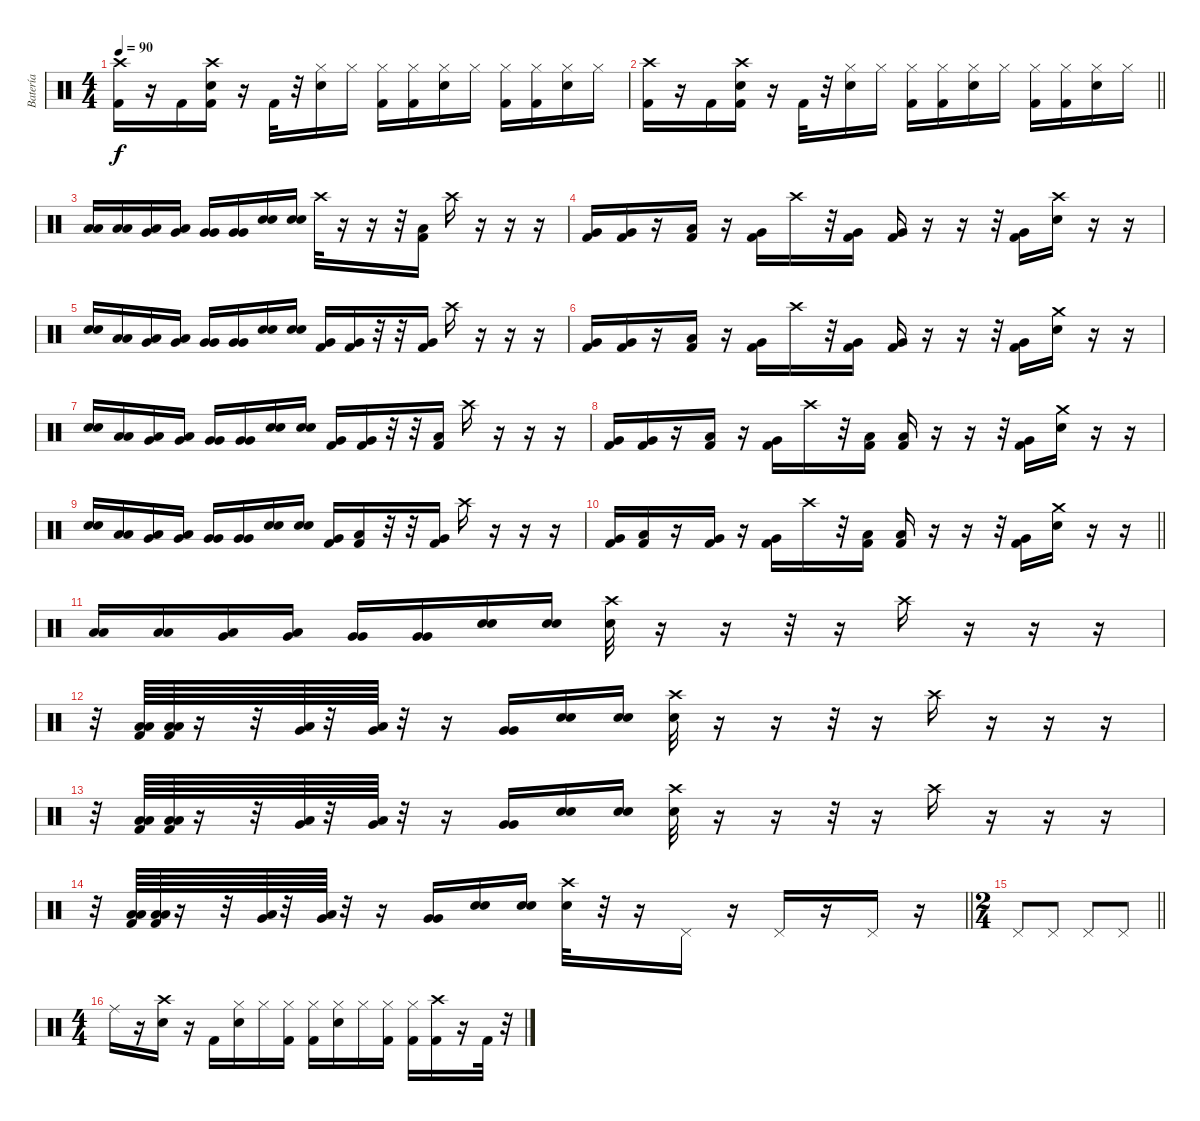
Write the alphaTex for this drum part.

\track ("Batería   (Jony)" "Batería   ") {instrument percussion}
\staff {score}
\articulation defaults
\ts (4 4)
\tempo 90
\clef neutral
\ks c
("Crash high (hit)" "Kick (hit) 2").16{dy f} r.16 "Kick (hit) 2".16 ("Crash high (hit)" "Electric Snare (hit)" "Kick (hit) 2").16 r.16 "Kick (hit) 2".32 r.32 ("Hi-Hat (closed)" "Electric Snare (hit)").16 "Hi-Hat (closed)".16 ("Hi-Hat (closed)" "Kick (hit) 2").16 ("Hi-Hat (closed)" "Kick (hit) 2").16 ("Hi-Hat (closed)" "Electric Snare (hit)").16 "Hi-Hat (closed)".16 ("Hi-Hat (closed)" "Kick (hit) 2").16 ("Hi-Hat (closed)" "Kick (hit) 2").16 ("Hi-Hat (closed)" "Electric Snare (hit)").16 "Hi-Hat (closed)".16 |
\barLineRight lightlight
("Crash high (hit)" "Kick (hit) 2").16 r.16 "Kick (hit) 2".16 ("Crash high (hit)" "Electric Snare (hit)" "Kick (hit) 2").16 r.16 "Kick (hit) 2".32 r.32 ("Hi-Hat (closed)" "Electric Snare (hit)").16 "Hi-Hat (closed)".16 ("Hi-Hat (closed)" "Kick (hit) 2").16 ("Hi-Hat (closed)" "Kick (hit) 2").16 ("Hi-Hat (closed)" "Electric Snare (hit)").16 "Hi-Hat (closed)".16 ("Hi-Hat (closed)" "Kick (hit) 2").16 ("Hi-Hat (closed)" "Kick (hit) 2").16 ("Hi-Hat (closed)" "Electric Snare (hit)").16 "Hi-Hat (closed)".16 |
("Low Tom (hit)" "Low Tom (hit)").16 ("Low Tom (hit)" "Low Tom (hit)").16 ("Low Tom (hit)" "Very Low Tom (hit)").16 ("Low Tom (hit)" "Very Low Tom (hit)").16 ("Very Low Tom (hit)" "Very Low Tom (hit)").16 ("Very Low Tom (hit)" "Very Low Tom (hit)").16 ("Electric Snare (hit)" "Electric Snare (hit)").16 ("Electric Snare (hit)" "Electric Snare (hit)").16 "Crash high (hit)".32 r.16 r.16 r.32 ("Low Tom (hit)" "Kick (hit) 2").16 "Crash high (hit)".16 r.16 r.16 r.16 |
("Very Low Tom (hit)" "Kick (hit) 2").16 ("Very Low Tom (hit)" "Kick (hit) 2").16 r.16 ("Low Tom (hit)" "Kick (hit) 2").16 r.16 ("Very Low Tom (hit)" "Kick (hit) 2").16 "Crash high (hit)".16 r.32 ("Very Low Tom (hit)" "Kick (hit) 2").16 ("Very Low Tom (hit)" "Kick (hit) 2").16 r.16 r.16 r.32 ("Very Low Tom (hit)" "Kick (hit) 2").16 ("Crash high (hit)" "Electric Snare (hit)").16 r.16 r.16 |
("Electric Snare (hit)" "Electric Snare (hit)").16 ("Low Tom (hit)" "Low Tom (hit)").16 ("Low Tom (hit)" "Very Low Tom (hit)").16 ("Low Tom (hit)" "Very Low Tom (hit)").16 ("Very Low Tom (hit)" "Very Low Tom (hit)").16 ("Very Low Tom (hit)" "Very Low Tom (hit)").16 ("Electric Snare (hit)" "Electric Snare (hit)").16 ("Electric Snare (hit)" "Electric Snare (hit)").16 ("Very Low Tom (hit)" "Kick (hit) 2").16 ("Very Low Tom (hit)" "Kick (hit) 2").16 r.32 r.32 ("Very Low Tom (hit)" "Kick (hit) 2").16 "Crash high (hit)".16 r.16 r.16 r.16 |
("Very Low Tom (hit)" "Kick (hit) 2").16 ("Very Low Tom (hit)" "Kick (hit) 2").16 r.16 ("Low Tom (hit)" "Kick (hit) 2").16 r.16 ("Very Low Tom (hit)" "Kick (hit) 2").16 "Crash high (hit)".16 r.32 ("Very Low Tom (hit)" "Kick (hit) 2").16 ("Very Low Tom (hit)" "Kick (hit) 2").16 r.16 r.16 r.32 ("Very Low Tom (hit)" "Kick (hit) 2").16 ("Crash medium (hit)" "Electric Snare (hit)").16 r.16 r.16 |
("Electric Snare (hit)" "Electric Snare (hit)").16 ("Low Tom (hit)" "Low Tom (hit)").16 ("Low Tom (hit)" "Very Low Tom (hit)").16 ("Low Tom (hit)" "Very Low Tom (hit)").16 ("Very Low Tom (hit)" "Very Low Tom (hit)").16 ("Very Low Tom (hit)" "Very Low Tom (hit)").16 ("Electric Snare (hit)" "Electric Snare (hit)").16 ("Electric Snare (hit)" "Electric Snare (hit)").16 ("Very Low Tom (hit)" "Kick (hit) 2").16 ("Very Low Tom (hit)" "Kick (hit) 2").16 r.32 r.32 ("Low Tom (hit)" "Kick (hit) 2").16 "Crash high (hit)".16 r.16 r.16 r.16 |
("Very Low Tom (hit)" "Kick (hit) 2").16 ("Very Low Tom (hit)" "Kick (hit) 2").16 r.16 ("Low Tom (hit)" "Kick (hit) 2").16 r.16 ("Very Low Tom (hit)" "Kick (hit) 2").16 "Crash high (hit)".16 r.32 ("Low Tom (hit)" "Kick (hit) 2").16 ("Low Tom (hit)" "Kick (hit) 2").16 r.16 r.16 r.32 ("Very Low Tom (hit)" "Kick (hit) 2").16 ("Crash medium (hit)" "Electric Snare (hit)").16 r.16 r.16 |
("Electric Snare (hit)" "Electric Snare (hit)").16 ("Low Tom (hit)" "Low Tom (hit)").16 ("Low Tom (hit)" "Very Low Tom (hit)").16 ("Low Tom (hit)" "Very Low Tom (hit)").16 ("Very Low Tom (hit)" "Very Low Tom (hit)").16 ("Very Low Tom (hit)" "Very Low Tom (hit)").16 ("Electric Snare (hit)" "Electric Snare (hit)").16 ("Electric Snare (hit)" "Electric Snare (hit)").16 ("Very Low Tom (hit)" "Kick (hit) 2").16 ("Low Tom (hit)" "Kick (hit) 2").16 r.32 r.32 ("Very Low Tom (hit)" "Kick (hit) 2").16 "Crash high (hit)".16 r.16 r.16 r.16 |
\barLineRight lightlight
("Very Low Tom (hit)" "Kick (hit) 2").16 ("Low Tom (hit)" "Kick (hit) 2").16 r.16 ("Very Low Tom (hit)" "Kick (hit) 2").16 r.16 ("Very Low Tom (hit)" "Kick (hit) 2").16 "Crash high (hit)".16 r.32 ("Low Tom (hit)" "Kick (hit) 2").16 ("Low Tom (hit)" "Kick (hit) 2").16 r.16 r.16 r.32 ("Very Low Tom (hit)" "Kick (hit) 2").16 ("Crash medium (hit)" "Electric Snare (hit)").16 r.16 r.16 |
("Low Tom (hit)" "Low Tom (hit)").16 ("Low Tom (hit)" "Low Tom (hit)").16 ("Low Tom (hit)" "Very Low Tom (hit)").16 ("Low Tom (hit)" "Very Low Tom (hit)").16 ("Very Low Tom (hit)" "Very Low Tom (hit)").16 ("Very Low Tom (hit)" "Very Low Tom (hit)").16 ("Electric Snare (hit)" "Electric Snare (hit)").16 ("Electric Snare (hit)" "Electric Snare (hit)").16 ("Crash high (hit)" "Electric Snare (hit)").32 r.16 r.16 r.32 r.16 "Crash high (hit)".16 r.16 r.16 r.16 |
r.32 ("Low Tom (hit)" "Low Tom (hit)" "Kick (hit) 2").64 ("Low Tom (hit)" "Low Tom (hit)" "Kick (hit) 2").64 r.16 r.32 ("Low Tom (hit)" "Very Low Tom (hit)").64 r.32 ("Low Tom (hit)" "Very Low Tom (hit)").64 r.32 r.16 ("Very Low Tom (hit)" "Very Low Tom (hit)").16 ("Electric Snare (hit)" "Electric Snare (hit)").16 ("Electric Snare (hit)" "Electric Snare (hit)").16 ("Crash high (hit)" "Electric Snare (hit)").32 r.16 r.16 r.32 r.16 "Crash high (hit)".16 r.16 r.16 r.16 |
r.32 ("Low Tom (hit)" "Low Tom (hit)" "Kick (hit) 2").64 ("Low Tom (hit)" "Low Tom (hit)" "Kick (hit) 2").64 r.16 r.32 ("Low Tom (hit)" "Very Low Tom (hit)").64 r.32 ("Low Tom (hit)" "Very Low Tom (hit)").64 r.32 r.16 ("Very Low Tom (hit)" "Very Low Tom (hit)").16 ("Electric Snare (hit)" "Electric Snare (hit)").16 ("Electric Snare (hit)" "Electric Snare (hit)").16 ("Crash high (hit)" "Electric Snare (hit)").32 r.16 r.16 r.32 r.16 "Crash high (hit)".16 r.16 r.16 r.16 |
\barLineRight lightlight
r.32 ("Low Tom (hit)" "Low Tom (hit)" "Kick (hit) 2").64 ("Low Tom (hit)" "Low Tom (hit)" "Kick (hit) 2").64 r.16 r.32 ("Low Tom (hit)" "Very Low Tom (hit)").64 r.32 ("Low Tom (hit)" "Very Low Tom (hit)").64 r.32 r.16 ("Very Low Tom (hit)" "Very Low Tom (hit)").16 ("Electric Snare (hit)" "Electric Snare (hit)").16 ("Electric Snare (hit)" "Electric Snare (hit)").16 ("Crash high (hit)" "Electric Snare (hit)").32 r.32 r.16 "Pedal Hi-Hat (hit)".16 r.16 "Pedal Hi-Hat (hit)".16 r.16 "Pedal Hi-Hat (hit)".16 r.16 |
\ts (2 4)
\barLineRight lightlight "Pedal Hi-Hat (hit)".8 "Pedal Hi-Hat (hit)".8 "Pedal Hi-Hat (hit)".8 "Pedal Hi-Hat (hit)".8
|
\ts (4 4)
"Ride (middle)".16 r.16 ("Crash high (hit)" "Electric Snare (hit)").16 r.16 "Kick (hit) 2".16 ("Hi-Hat (closed)" "Electric Snare (hit)").16 "Hi-Hat (closed)".16 ("Hi-Hat (closed)" "Kick (hit) 2").16 ("Hi-Hat (closed)" "Kick (hit) 2").16 ("Hi-Hat (closed)" "Electric Snare (hit)").16 "Hi-Hat (closed)".16 ("Hi-Hat (closed)" "Kick (hit) 2").16 ("Hi-Hat (closed)" "Kick (hit) 2").16 ("Crash high (hit)" "Kick (hit) 2").16 r.16 "Kick (hit) 2".32 r.32
